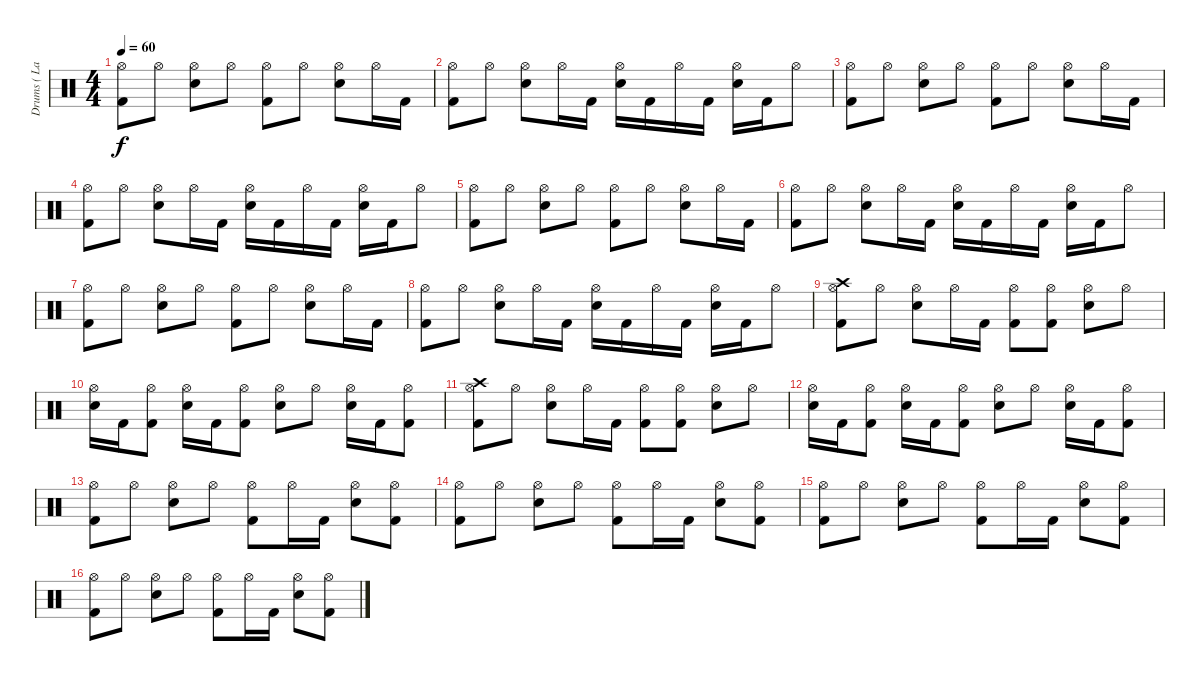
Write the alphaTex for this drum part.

\track ("Drums ( Lars )" "Drums ( La") {instrument percussion}
\staff {score}
\articulation defaults
\ts (4 4)
\tempo 60
\clef neutral
\ks c
("Kick (hit) 2" "Hi-Hat (open)").8{dy f} "Hi-Hat (open)".8 ("Snare (hit) 2" "Hi-Hat (open)").8 "Hi-Hat (open)".8 ("Kick (hit) 2" "Hi-Hat (open)").8 "Hi-Hat (open)".8 ("Snare (hit) 2" "Hi-Hat (open)").8 "Hi-Hat (open)".16 "Kick (hit) 2".16 |
("Kick (hit) 2" "Hi-Hat (open)").8 "Hi-Hat (open)".8 ("Snare (hit) 2" "Hi-Hat (open)").8 "Hi-Hat (open)".16 "Kick (hit) 2".16 ("Snare (hit) 2" "Hi-Hat (open)").16 "Kick (hit) 2".16 "Hi-Hat (open)".16 "Kick (hit) 2".16 ("Snare (hit) 2" "Hi-Hat (open)").16 "Kick (hit) 2".16 "Hi-Hat (open)".8 |
("Kick (hit) 2" "Hi-Hat (open)").8 "Hi-Hat (open)".8 ("Snare (hit) 2" "Hi-Hat (open)").8 "Hi-Hat (open)".8 ("Kick (hit) 2" "Hi-Hat (open)").8 "Hi-Hat (open)".8 ("Snare (hit) 2" "Hi-Hat (open)").8 "Hi-Hat (open)".16 "Kick (hit) 2".16 |
("Kick (hit) 2" "Hi-Hat (open)").8 "Hi-Hat (open)".8 ("Snare (hit) 2" "Hi-Hat (open)").8 "Hi-Hat (open)".16 "Kick (hit) 2".16 ("Snare (hit) 2" "Hi-Hat (open)").16 "Kick (hit) 2".16 "Hi-Hat (open)".16 "Kick (hit) 2".16 ("Snare (hit) 2" "Hi-Hat (open)").16 "Kick (hit) 2".16 "Hi-Hat (open)".8 |
("Kick (hit) 2" "Hi-Hat (open)").8 "Hi-Hat (open)".8 ("Snare (hit) 2" "Hi-Hat (open)").8 "Hi-Hat (open)".8 ("Kick (hit) 2" "Hi-Hat (open)").8 "Hi-Hat (open)".8 ("Snare (hit) 2" "Hi-Hat (open)").8 "Hi-Hat (open)".16 "Kick (hit) 2".16 |
("Kick (hit) 2" "Hi-Hat (open)").8 "Hi-Hat (open)".8 ("Snare (hit) 2" "Hi-Hat (open)").8 "Hi-Hat (open)".16 "Kick (hit) 2".16 ("Snare (hit) 2" "Hi-Hat (open)").16 "Kick (hit) 2".16 "Hi-Hat (open)".16 "Kick (hit) 2".16 ("Snare (hit) 2" "Hi-Hat (open)").16 "Kick (hit) 2".16 "Hi-Hat (open)".8 |
("Kick (hit) 2" "Hi-Hat (open)").8 "Hi-Hat (open)".8 ("Snare (hit) 2" "Hi-Hat (open)").8 "Hi-Hat (open)".8 ("Kick (hit) 2" "Hi-Hat (open)").8 "Hi-Hat (open)".8 ("Snare (hit) 2" "Hi-Hat (open)").8 "Hi-Hat (open)".16 "Kick (hit) 2".16 |
("Kick (hit) 2" "Hi-Hat (open)").8 "Hi-Hat (open)".8 ("Snare (hit) 2" "Hi-Hat (open)").8 "Hi-Hat (open)".16 "Kick (hit) 2".16 ("Snare (hit) 2" "Hi-Hat (open)").16 "Kick (hit) 2".16 "Hi-Hat (open)".16 "Kick (hit) 2".16 ("Snare (hit) 2" "Hi-Hat (open)").16 "Kick (hit) 2".16 "Hi-Hat (open)".8 |
("Kick (hit) 2" "Hi-Hat (open)" "Crash high (hit)").8 "Hi-Hat (open)".8 ("Snare (hit) 2" "Hi-Hat (open)").8 "Hi-Hat (open)".16 "Kick (hit) 2".16 ("Kick (hit) 2" "Hi-Hat (open)").8 ("Kick (hit) 2" "Hi-Hat (open)").8 ("Snare (hit) 2" "Hi-Hat (open)").8 "Hi-Hat (open)".8 |
("Snare (hit) 2" "Hi-Hat (open)").16 "Kick (hit) 2".16 ("Kick (hit) 2" "Hi-Hat (open)").8 ("Snare (hit) 2" "Hi-Hat (open)").16 "Kick (hit) 2".16 ("Kick (hit) 2" "Hi-Hat (open)").8 ("Snare (hit) 2" "Hi-Hat (open)").8 "Hi-Hat (open)".8 ("Snare (hit) 2" "Hi-Hat (open)").16 "Kick (hit) 2".16 ("Kick (hit) 2" "Hi-Hat (open)").8 |
("Kick (hit) 2" "Hi-Hat (open)" "Crash high (hit)").8 "Hi-Hat (open)".8 ("Snare (hit) 2" "Hi-Hat (open)").8 "Hi-Hat (open)".16 "Kick (hit) 2".16 ("Kick (hit) 2" "Hi-Hat (open)").8 ("Kick (hit) 2" "Hi-Hat (open)").8 ("Snare (hit) 2" "Hi-Hat (open)").8 "Hi-Hat (open)".8 |
("Snare (hit) 2" "Hi-Hat (open)").16 "Kick (hit) 2".16 ("Kick (hit) 2" "Hi-Hat (open)").8 ("Snare (hit) 2" "Hi-Hat (open)").16 "Kick (hit) 2".16 ("Kick (hit) 2" "Hi-Hat (open)").8 ("Snare (hit) 2" "Hi-Hat (open)").8 "Hi-Hat (open)".8 ("Snare (hit) 2" "Hi-Hat (open)").16 "Kick (hit) 2".16 ("Kick (hit) 2" "Hi-Hat (open)").8 |
("Kick (hit) 2" "Hi-Hat (open)").8 "Hi-Hat (open)".8 ("Snare (hit) 2" "Hi-Hat (open)").8 "Hi-Hat (open)".8 ("Kick (hit) 2" "Hi-Hat (open)").8 "Hi-Hat (open)".16 "Kick (hit) 2".16 ("Snare (hit) 2" "Hi-Hat (open)").8 ("Kick (hit) 2" "Hi-Hat (open)").8 |
("Kick (hit) 2" "Hi-Hat (open)").8 "Hi-Hat (open)".8 ("Snare (hit) 2" "Hi-Hat (open)").8 "Hi-Hat (open)".8 ("Kick (hit) 2" "Hi-Hat (open)").8 "Hi-Hat (open)".16 "Kick (hit) 2".16 ("Snare (hit) 2" "Hi-Hat (open)").8 ("Kick (hit) 2" "Hi-Hat (open)").8 |
("Kick (hit) 2" "Hi-Hat (open)").8 "Hi-Hat (open)".8 ("Snare (hit) 2" "Hi-Hat (open)").8 "Hi-Hat (open)".8 ("Kick (hit) 2" "Hi-Hat (open)").8 "Hi-Hat (open)".16 "Kick (hit) 2".16 ("Snare (hit) 2" "Hi-Hat (open)").8 ("Kick (hit) 2" "Hi-Hat (open)").8 |
("Kick (hit) 2" "Hi-Hat (open)").8 "Hi-Hat (open)".8 ("Snare (hit) 2" "Hi-Hat (open)").8 "Hi-Hat (open)".8 ("Kick (hit) 2" "Hi-Hat (open)").8 "Hi-Hat (open)".16 "Kick (hit) 2".16 ("Snare (hit) 2" "Hi-Hat (open)").8 ("Kick (hit) 2" "Hi-Hat (open)").8
